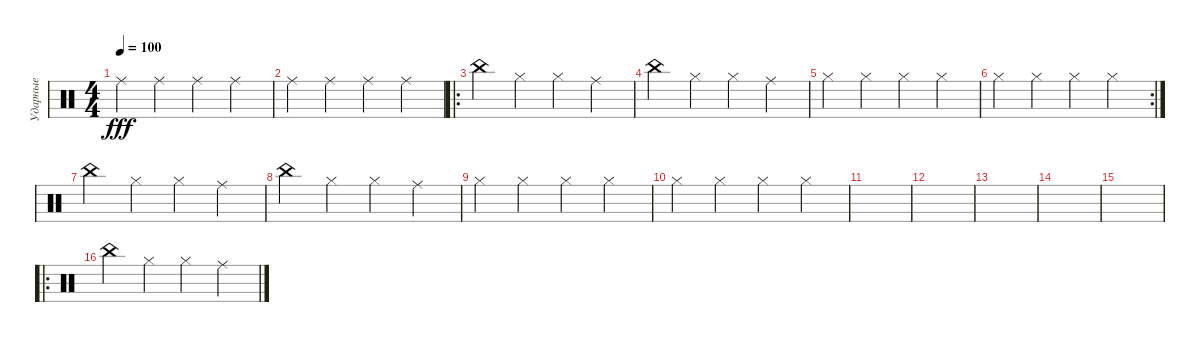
\track ("Ударные" "Ударные") {instrument percussion}
\staff {score}
\articulation defaults
\ts (4 4)
\tempo 100
\clef neutral
\ks c "Ride (middle)".4{dy fff} "Ride (middle)".4 "Ride (middle)".4 "Ride (middle)".4
|
"Ride (middle)".4 "Ride (middle)".4 "Ride (middle)".4 "Ride (middle)".4 |
\ro "China (hit)".4 "Hi-Hat (closed)".4 "Hi-Hat (closed)".4 "Ride (middle)".4
|
"China (hit)".4 "Hi-Hat (closed)".4 "Hi-Hat (closed)".4 "Ride (middle)".4 |
"Hi-Hat (closed)".4 "Hi-Hat (closed)".4 "Hi-Hat (closed)".4 "Hi-Hat (closed)".4 |
\rc 2 "Hi-Hat (closed)".4 "Hi-Hat (closed)".4 "Hi-Hat (closed)".4 "Hi-Hat (closed)".4
|
"China (hit)".4 "Hi-Hat (closed)".4 "Hi-Hat (closed)".4 "Ride (middle)".4 |
"China (hit)".4 "Hi-Hat (closed)".4 "Hi-Hat (closed)".4 "Ride (middle)".4 |
"Hi-Hat (closed)".4 "Hi-Hat (closed)".4 "Hi-Hat (closed)".4 "Hi-Hat (closed)".4 |
"Hi-Hat (closed)".4 "Hi-Hat (closed)".4 "Hi-Hat (closed)".4 "Hi-Hat (closed)".4 |
|
|
|
|
|
\ro "China (hit)".4 "Hi-Hat (closed)".4 "Hi-Hat (closed)".4 "Ride (middle)".4
